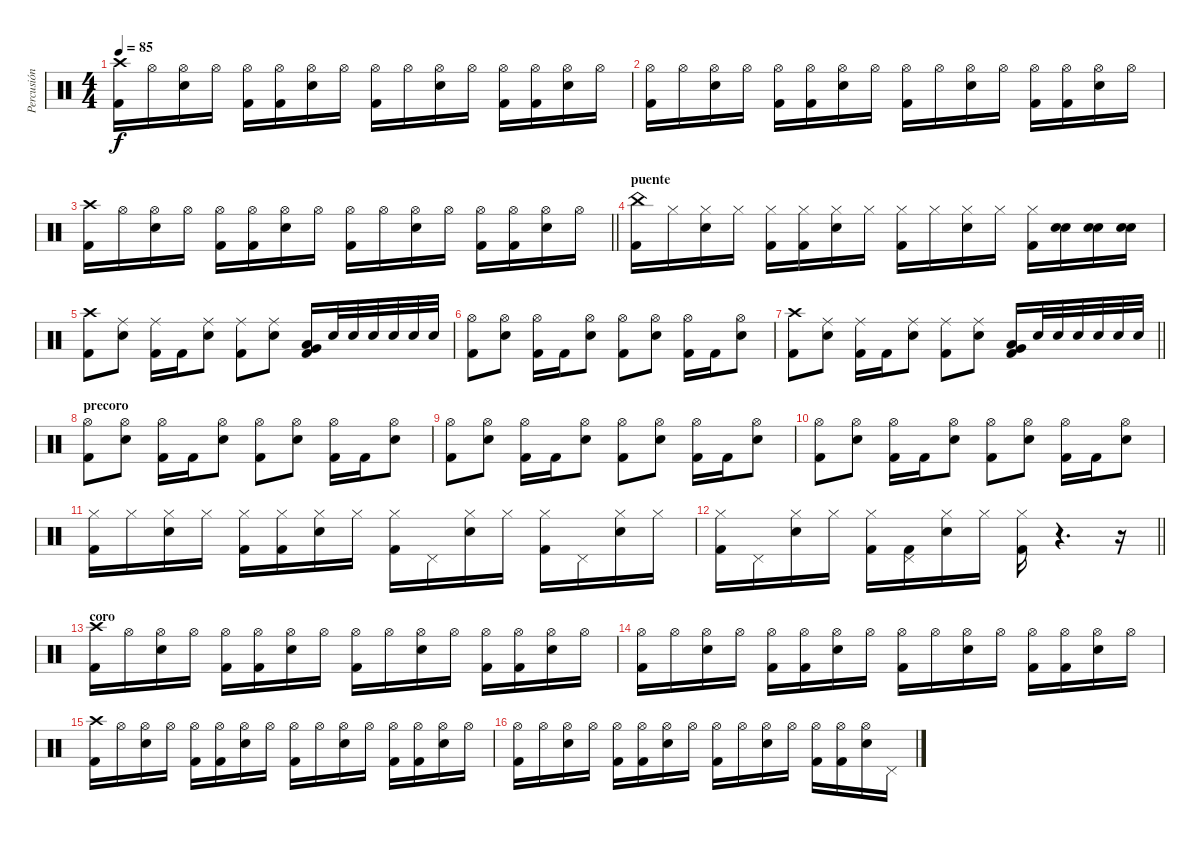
\track ("Percusión" "Percusión") {instrument percussion}
\staff {score}
\articulation defaults
\ts (4 4)
\tempo 85
\clef neutral
\ks c
("Crash high (hit)" "Kick (hit) 2").16{dy f} "Hi-Hat (open)".16 ("Hi-Hat (open)" "Electric Snare (hit)").16 "Hi-Hat (open)".16 ("Hi-Hat (open)" "Kick (hit) 2").16 ("Hi-Hat (open)" "Kick (hit) 2").16 ("Hi-Hat (open)" "Electric Snare (hit)").16 "Hi-Hat (open)".16 ("Hi-Hat (open)" "Kick (hit) 2").16 "Hi-Hat (open)".16 ("Hi-Hat (open)" "Electric Snare (hit)").16 "Hi-Hat (open)".16 ("Hi-Hat (open)" "Kick (hit) 2").16 ("Hi-Hat (open)" "Kick (hit) 2").16 ("Hi-Hat (open)" "Electric Snare (hit)").16 "Hi-Hat (open)".16 |
("Hi-Hat (open)" "Kick (hit) 2").16 "Hi-Hat (open)".16 ("Hi-Hat (open)" "Electric Snare (hit)").16 "Hi-Hat (open)".16 ("Hi-Hat (open)" "Kick (hit) 2").16 ("Hi-Hat (open)" "Kick (hit) 2").16 ("Hi-Hat (open)" "Electric Snare (hit)").16 "Hi-Hat (open)".16 ("Hi-Hat (open)" "Kick (hit) 2").16 "Hi-Hat (open)".16 ("Hi-Hat (open)" "Electric Snare (hit)").16 "Hi-Hat (open)".16 ("Hi-Hat (open)" "Kick (hit) 2").16 ("Hi-Hat (open)" "Kick (hit) 2").16 ("Hi-Hat (open)" "Electric Snare (hit)").16 "Hi-Hat (open)".16 |
\barLineRight lightlight
("Crash high (hit)" "Kick (hit) 2").16 "Hi-Hat (open)".16 ("Hi-Hat (open)" "Electric Snare (hit)").16 "Hi-Hat (open)".16 ("Hi-Hat (open)" "Kick (hit) 2").16 ("Hi-Hat (open)" "Kick (hit) 2").16 ("Hi-Hat (open)" "Electric Snare (hit)").16 "Hi-Hat (open)".16 ("Hi-Hat (open)" "Kick (hit) 2").16 "Hi-Hat (open)".16 ("Hi-Hat (open)" "Electric Snare (hit)").16 "Hi-Hat (open)".16 ("Hi-Hat (open)" "Kick (hit) 2").16 ("Hi-Hat (open)" "Kick (hit) 2").16 ("Hi-Hat (open)" "Electric Snare (hit)").16 "Hi-Hat (open)".16 |
\section ("" "puente")
("China (hit)" "Kick (hit) 2").16 "Hi-Hat (closed)".16 ("Hi-Hat (closed)" "Electric Snare (hit)").16 "Hi-Hat (closed)".16 ("Hi-Hat (closed)" "Kick (hit) 2").16 ("Hi-Hat (closed)" "Kick (hit) 2").16 ("Hi-Hat (closed)" "Electric Snare (hit)").16 "Hi-Hat (closed)".16 ("Hi-Hat (closed)" "Kick (hit) 2").16 "Hi-Hat (closed)".16 ("Hi-Hat (closed)" "Electric Snare (hit)").16 "Hi-Hat (closed)".16 ("Hi-Hat (closed)" "Kick (hit) 2").16 ("Electric Snare (hit)" "Snare (hit) 2").16 ("Electric Snare (hit)" "Snare (hit) 2").16 ("Electric Snare (hit)" "Snare (hit) 2").16 |
("Crash high (hit)" "Kick (hit) 2").8 ("Ride (middle)" "Electric Snare (hit)").8 ("Ride (middle)" "Kick (hit) 2").16 "Kick (hit) 2".16 ("Ride (middle)" "Electric Snare (hit)").8 ("Ride (middle)" "Kick (hit) 2").8 ("Ride (middle)" "Electric Snare (hit)").8 ("Low Floor Tom (hit)" "Very Low Tom (hit)" "Kick (hit) 2").16 "Electric Snare (hit)".32 "Electric Snare (hit)".32 "Electric Snare (hit)".32 "Electric Snare (hit)".32 "Electric Snare (hit)".32 "Electric Snare (hit)".32 |
("Hi-Hat (open)" "Kick (hit) 2").8 ("Hi-Hat (open)" "Electric Snare (hit)").8 ("Hi-Hat (open)" "Kick (hit) 2").16 "Kick (hit) 2".16 ("Hi-Hat (open)" "Electric Snare (hit)").8 ("Hi-Hat (open)" "Kick (hit) 2").8 ("Hi-Hat (open)" "Electric Snare (hit)").8 ("Hi-Hat (open)" "Kick (hit) 2").16 "Kick (hit) 2".16 ("Hi-Hat (open)" "Electric Snare (hit)").8 |
\barLineRight lightlight
("Crash high (hit)" "Kick (hit) 2").8 ("Ride (middle)" "Electric Snare (hit)").8 ("Ride (middle)" "Kick (hit) 2").16 "Kick (hit) 2".16 ("Ride (middle)" "Electric Snare (hit)").8 ("Ride (middle)" "Kick (hit) 2").8 ("Ride (middle)" "Electric Snare (hit)").8 ("Low Floor Tom (hit)" "Very Low Tom (hit)" "Kick (hit) 2").16 "Electric Snare (hit)".32 "Electric Snare (hit)".32 "Electric Snare (hit)".32 "Electric Snare (hit)".32 "Electric Snare (hit)".32 "Electric Snare (hit)".32 |
\section ("" "precoro")
("Hi-Hat (open)" "Kick (hit) 2").8 ("Hi-Hat (open)" "Electric Snare (hit)").8 ("Hi-Hat (open)" "Kick (hit) 2").16 "Kick (hit) 2".16 ("Hi-Hat (open)" "Electric Snare (hit)").8 ("Hi-Hat (open)" "Kick (hit) 2").8 ("Hi-Hat (open)" "Electric Snare (hit)").8 ("Hi-Hat (open)" "Kick (hit) 2").16 "Kick (hit) 2".16 ("Hi-Hat (open)" "Electric Snare (hit)").8 |
("Hi-Hat (open)" "Kick (hit) 2").8 ("Hi-Hat (open)" "Electric Snare (hit)").8 ("Hi-Hat (open)" "Kick (hit) 2").16 "Kick (hit) 2".16 ("Hi-Hat (open)" "Electric Snare (hit)").8 ("Hi-Hat (open)" "Kick (hit) 2").8 ("Hi-Hat (open)" "Electric Snare (hit)").8 ("Hi-Hat (open)" "Kick (hit) 2").16 "Kick (hit) 2".16 ("Hi-Hat (open)" "Electric Snare (hit)").8 |
("Hi-Hat (open)" "Kick (hit) 2").8 ("Hi-Hat (open)" "Electric Snare (hit)").8 ("Hi-Hat (open)" "Kick (hit) 2").16 "Kick (hit) 2".16 ("Hi-Hat (open)" "Electric Snare (hit)").8 ("Hi-Hat (open)" "Kick (hit) 2").8 ("Hi-Hat (open)" "Electric Snare (hit)").8 ("Hi-Hat (open)" "Kick (hit) 2").16 "Kick (hit) 2".16 ("Hi-Hat (open)" "Electric Snare (hit)").8 |
("Hi-Hat (closed)" "Kick (hit) 2").16 "Hi-Hat (closed)".16 ("Hi-Hat (closed)" "Electric Snare (hit)").16 "Hi-Hat (closed)".16 ("Hi-Hat (closed)" "Kick (hit) 2").16 ("Hi-Hat (closed)" "Kick (hit) 2").16 ("Hi-Hat (closed)" "Electric Snare (hit)").16 "Hi-Hat (closed)".16 ("Hi-Hat (closed)" "Kick (hit) 2").16 "Pedal Hi-Hat (hit)".16 ("Hi-Hat (closed)" "Electric Snare (hit)").16 "Hi-Hat (closed)".16 ("Hi-Hat (closed)" "Kick (hit) 2").16 "Pedal Hi-Hat (hit)".16 ("Hi-Hat (closed)" "Electric Snare (hit)").16 "Hi-Hat (closed)".16 |
\barLineRight lightlight
("Hi-Hat (closed)" "Kick (hit) 2").16 "Pedal Hi-Hat (hit)".16 ("Hi-Hat (closed)" "Electric Snare (hit)").16 "Hi-Hat (closed)".16 ("Hi-Hat (closed)" "Kick (hit) 2").16 ("Pedal Hi-Hat (hit)" "Kick (hit) 2").16 ("Hi-Hat (closed)" "Electric Snare (hit)").16 "Hi-Hat (closed)".16 ("Hi-Hat (closed)" "Kick (hit) 2").16 r.4{d} r.16 |
\section ("" "coro")
("Crash high (hit)" "Kick (hit) 2").16 "Hi-Hat (open)".16 ("Hi-Hat (open)" "Electric Snare (hit)").16 "Hi-Hat (open)".16 ("Hi-Hat (open)" "Kick (hit) 2").16 ("Hi-Hat (open)" "Kick (hit) 2").16 ("Hi-Hat (open)" "Electric Snare (hit)").16 "Hi-Hat (open)".16 ("Hi-Hat (open)" "Kick (hit) 2").16 "Hi-Hat (open)".16 ("Hi-Hat (open)" "Electric Snare (hit)").16 "Hi-Hat (open)".16 ("Hi-Hat (open)" "Kick (hit) 2").16 ("Hi-Hat (open)" "Kick (hit) 2").16 ("Hi-Hat (open)" "Electric Snare (hit)").16 "Hi-Hat (open)".16 |
("Hi-Hat (open)" "Kick (hit) 2").16 "Hi-Hat (open)".16 ("Hi-Hat (open)" "Electric Snare (hit)").16 "Hi-Hat (open)".16 ("Hi-Hat (open)" "Kick (hit) 2").16 ("Hi-Hat (open)" "Kick (hit) 2").16 ("Hi-Hat (open)" "Electric Snare (hit)").16 "Hi-Hat (open)".16 ("Hi-Hat (open)" "Kick (hit) 2").16 "Hi-Hat (open)".16 ("Hi-Hat (open)" "Electric Snare (hit)").16 "Hi-Hat (open)".16 ("Hi-Hat (open)" "Kick (hit) 2").16 ("Hi-Hat (open)" "Kick (hit) 2").16 ("Hi-Hat (open)" "Electric Snare (hit)").16 "Hi-Hat (open)".16 |
("Crash high (hit)" "Kick (hit) 2").16 "Hi-Hat (open)".16 ("Hi-Hat (open)" "Electric Snare (hit)").16 "Hi-Hat (open)".16 ("Hi-Hat (open)" "Kick (hit) 2").16 ("Hi-Hat (open)" "Kick (hit) 2").16 ("Hi-Hat (open)" "Electric Snare (hit)").16 "Hi-Hat (open)".16 ("Hi-Hat (open)" "Kick (hit) 2").16 "Hi-Hat (open)".16 ("Hi-Hat (open)" "Electric Snare (hit)").16 "Hi-Hat (open)".16 ("Hi-Hat (open)" "Kick (hit) 2").16 ("Hi-Hat (open)" "Kick (hit) 2").16 ("Hi-Hat (open)" "Electric Snare (hit)").16 "Hi-Hat (open)".16 |
("Hi-Hat (open)" "Kick (hit) 2").16 "Hi-Hat (open)".16 ("Hi-Hat (open)" "Electric Snare (hit)").16 "Hi-Hat (open)".16 ("Hi-Hat (open)" "Kick (hit) 2").16 ("Hi-Hat (open)" "Kick (hit) 2").16 ("Hi-Hat (open)" "Electric Snare (hit)").16 "Hi-Hat (open)".16 ("Hi-Hat (open)" "Kick (hit) 2").16 "Hi-Hat (open)".16 ("Hi-Hat (open)" "Electric Snare (hit)").16 "Hi-Hat (open)".16 ("Hi-Hat (open)" "Kick (hit) 2").16 ("Hi-Hat (open)" "Kick (hit) 2").16 ("Hi-Hat (open)" "Electric Snare (hit)").16 "Pedal Hi-Hat (hit)".16
